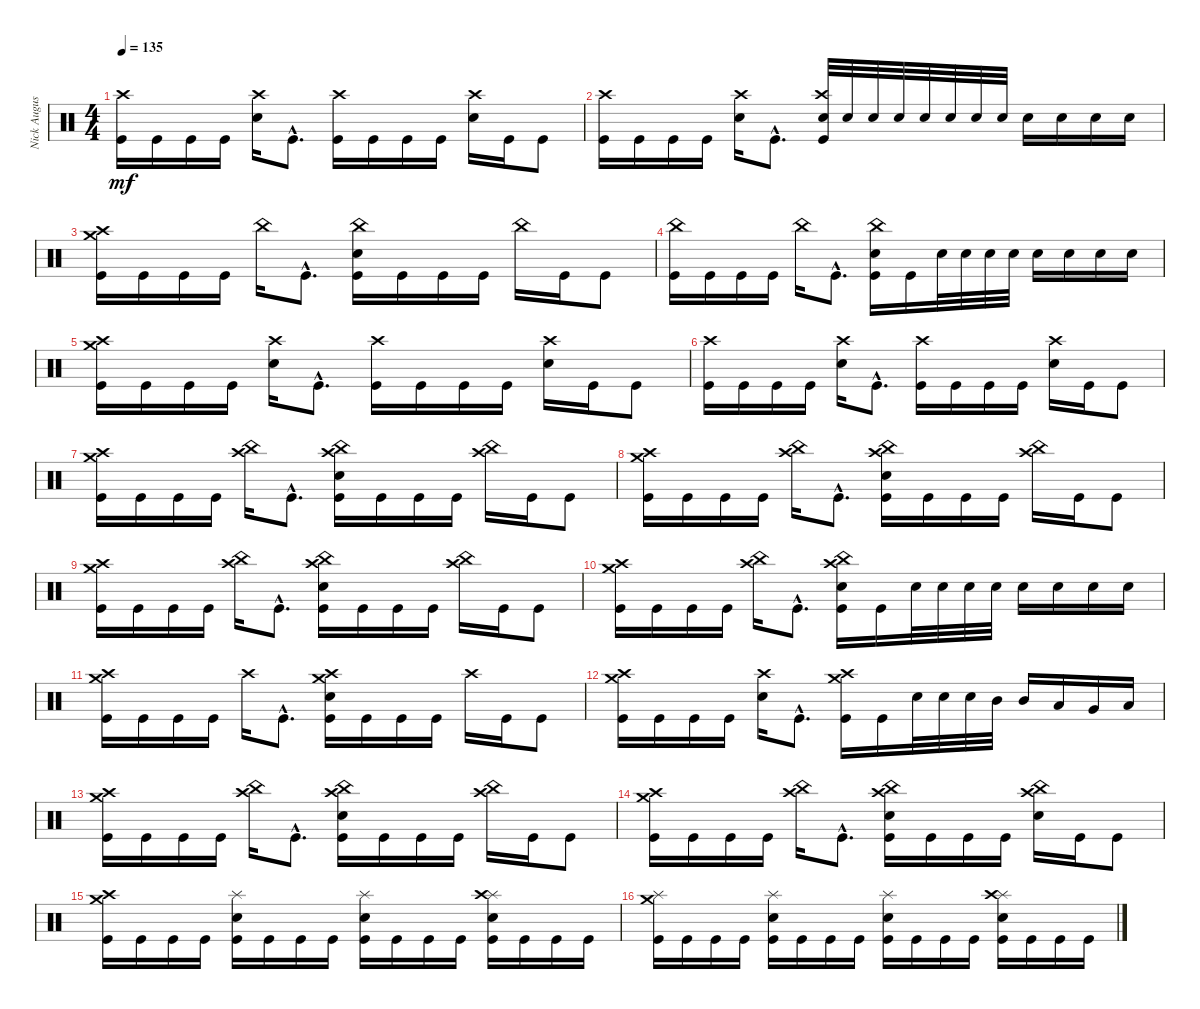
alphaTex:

\track ("Nick Augusto" "Nick Augus") {instrument percussion}
\staff {score}
\articulation defaults
\ts (4 4)
\tempo 135
\clef neutral
\ks c
("Kick (hit)" "Crash high (hit)").16{dy mf} "Kick (hit)".16 "Kick (hit)".16 "Kick (hit)".16 ("Snare (hit) 2" "Crash high (hit)").16 "Kick (hit)"{hac}.8{d} ("Kick (hit)" "Crash high (hit)").16 "Kick (hit)".16 "Kick (hit)".16 "Kick (hit)".16 ("Snare (hit) 2" "Crash high (hit)").16 "Kick (hit)".16 "Kick (hit)".8 |
("Kick (hit)" "Crash high (hit)").16 "Kick (hit)".16 "Kick (hit)".16 "Kick (hit)".16 ("Snare (hit) 2" "Crash high (hit)").16 "Kick (hit)"{hac}.8{d} ("Kick (hit)" "Snare (hit) 2" "Crash high (hit)").32 "Snare (hit) 2".32 "Snare (hit) 2".32 "Snare (hit) 2".32 "Snare (hit) 2".32 "Snare (hit) 2".32 "Snare (hit) 2".32 "Snare (hit) 2".32 "Snare (hit) 2".16 "Snare (hit) 2".16 "Snare (hit) 2".16 "Snare (hit) 2".16 |
("Kick (hit)" "Crash high (hit)" "Crash medium (hit)").16 "Kick (hit)".16 "Kick (hit)".16 "Kick (hit)".16 "China (hit)".16 "Kick (hit)"{hac}.8{d} ("Kick (hit)" "Snare (hit) 2" "China (hit)").16 "Kick (hit)".16 "Kick (hit)".16 "Kick (hit)".16 "China (hit)".16 "Kick (hit)".16 "Kick (hit)".8 |
("Kick (hit)" "China (hit)").16 "Kick (hit)".16 "Kick (hit)".16 "Kick (hit)".16 "China (hit)".16 "Kick (hit)"{hac}.8{d} ("Kick (hit)" "Snare (hit) 2" "China (hit)").16 "Kick (hit)".16 "Snare (hit) 2".32 "Snare (hit) 2".32 "Snare (hit) 2".32 "Snare (hit) 2".32 "Snare (hit) 2".16 "Snare (hit) 2".16 "Snare (hit) 2".16 "Snare (hit) 2".16 |
("Kick (hit)" "Crash high (hit)" "Crash medium (hit)").16 "Kick (hit)".16 "Kick (hit)".16 "Kick (hit)".16 ("Snare (hit) 2" "Crash high (hit)").16 "Kick (hit)"{hac}.8{d} ("Kick (hit)" "Crash high (hit)").16 "Kick (hit)".16 "Kick (hit)".16 "Kick (hit)".16 ("Snare (hit) 2" "Crash high (hit)").16 "Kick (hit)".16 "Kick (hit)".8 |
("Kick (hit)" "Crash high (hit)").16 "Kick (hit)".16 "Kick (hit)".16 "Kick (hit)".16 ("Snare (hit) 2" "Crash high (hit)").16 "Kick (hit)"{hac}.8{d} ("Kick (hit)" "Crash high (hit)").16 "Kick (hit)".16 "Kick (hit)".16 "Kick (hit)".16 ("Snare (hit) 2" "Crash high (hit)").16 "Kick (hit)".16 "Kick (hit)".8 |
("Kick (hit)" "Crash high (hit)" "Crash medium (hit)").16 "Kick (hit)".16 "Kick (hit)".16 "Kick (hit)".16 ("China (hit)" "Crash high (hit)").16 "Kick (hit)"{hac}.8{d} ("Kick (hit)" "Snare (hit) 2" "China (hit)" "Crash high (hit)").16 "Kick (hit)".16 "Kick (hit)".16 "Kick (hit)".16 ("China (hit)" "Crash high (hit)").16 "Kick (hit)".16 "Kick (hit)".8 |
("Kick (hit)" "Crash high (hit)" "Crash medium (hit)").16 "Kick (hit)".16 "Kick (hit)".16 "Kick (hit)".16 ("China (hit)" "Crash high (hit)").16 "Kick (hit)"{hac}.8{d} ("Kick (hit)" "Snare (hit) 2" "China (hit)" "Crash high (hit)").16 "Kick (hit)".16 "Kick (hit)".16 "Kick (hit)".16 ("China (hit)" "Crash high (hit)").16 "Kick (hit)".16 "Kick (hit)".8 |
("Kick (hit)" "Crash high (hit)" "Crash medium (hit)").16 "Kick (hit)".16 "Kick (hit)".16 "Kick (hit)".16 ("China (hit)" "Crash high (hit)").16 "Kick (hit)"{hac}.8{d} ("Kick (hit)" "Snare (hit) 2" "China (hit)" "Crash high (hit)").16 "Kick (hit)".16 "Kick (hit)".16 "Kick (hit)".16 ("China (hit)" "Crash high (hit)").16 "Kick (hit)".16 "Kick (hit)".8 |
("Kick (hit)" "Crash high (hit)" "Crash medium (hit)").16 "Kick (hit)".16 "Kick (hit)".16 "Kick (hit)".16 ("China (hit)" "Crash high (hit)").16 "Kick (hit)"{hac}.8{d} ("Kick (hit)" "Snare (hit) 2" "China (hit)" "Crash high (hit)").16 "Kick (hit)".16 "Snare (hit) 2".32 "Snare (hit) 2".32 "Snare (hit) 2".32 "Snare (hit) 2".32 "Snare (hit) 2".16 "Snare (hit) 2".16 "Snare (hit) 2".16 "Snare (hit) 2".16 |
("Kick (hit)" "Crash high (hit)" "Crash medium (hit)").16 "Kick (hit)".16 "Kick (hit)".16 "Kick (hit)".16 "Crash high (hit)".16 "Kick (hit)"{hac}.8{d} ("Kick (hit)" "Snare (hit) 2" "Crash high (hit)" "Crash medium (hit)").16 "Kick (hit)".16 "Kick (hit)".16 "Kick (hit)".16 "Crash high (hit)".16 "Kick (hit)".16 "Kick (hit)".8 |
("Kick (hit)" "Crash high (hit)" "Crash medium (hit)").16 "Kick (hit)".16 "Kick (hit)".16 "Kick (hit)".16 ("Snare (hit) 2" "Crash high (hit)").16 "Kick (hit)"{hac}.8{d} ("Kick (hit)" "Crash high (hit)" "Crash medium (hit)").16 "Kick (hit)".16 "Snare (hit) 2".32 "Snare (hit) 2".32 "Snare (hit) 2".32 "Mid Tom (hit)".32 "Mid Tom (hit)".16 "Low Tom (hit)".16 "Very Low Tom (hit)".16 "Low Floor Tom (hit)".16 |
("Kick (hit)" "Crash high (hit)" "Crash medium (hit)").16 "Kick (hit)".16 "Kick (hit)".16 "Kick (hit)".16 ("China (hit)" "Crash high (hit)").16 "Kick (hit)"{hac}.8{d} ("Kick (hit)" "Snare (hit) 2" "China (hit)" "Crash high (hit)").16 "Kick (hit)".16 "Kick (hit)".16 "Kick (hit)".16 ("China (hit)" "Crash high (hit)").16 "Kick (hit)".16 "Kick (hit)".8 |
("Kick (hit)" "Crash high (hit)" "Crash medium (hit)").16 "Kick (hit)".16 "Kick (hit)".16 "Kick (hit)".16 ("China (hit)" "Crash high (hit)").16 "Kick (hit)"{hac}.8{d} ("Kick (hit)" "Snare (hit) 2" "China (hit)" "Crash high (hit)").16 "Kick (hit)".16 "Kick (hit)".16 "Kick (hit)".16 ("Snare (hit) 2" "China (hit)" "Crash high (hit)").16 "Kick (hit)".16 "Kick (hit)".8 |
("Kick (hit)" "Crash high (hit)" "Crash medium (hit)").16 "Kick (hit)".16 "Kick (hit)".16 "Kick (hit)".16 ("Kick (hit)" "Snare (hit) 2" "Splash (hit)").16 "Kick (hit)".16 "Kick (hit)".16 "Kick (hit)".16 ("Kick (hit)" "Snare (hit) 2" "Splash (hit)").16 "Kick (hit)".16 "Kick (hit)".16 "Kick (hit)".16 ("Kick (hit)" "Snare (hit) 2" "Splash (hit)" "Crash high (hit)").16 "Kick (hit)".16 "Kick (hit)".16 "Kick (hit)".16 |
("Kick (hit)" "Splash (hit)" "Crash medium (hit)").16 "Kick (hit)".16 "Kick (hit)".16 "Kick (hit)".16 ("Kick (hit)" "Snare (hit) 2" "Splash (hit)").16 "Kick (hit)".16 "Kick (hit)".16 "Kick (hit)".16 ("Kick (hit)" "Snare (hit) 2" "Splash (hit)").16 "Kick (hit)".16 "Kick (hit)".16 "Kick (hit)".16 ("Kick (hit)" "Snare (hit) 2" "Splash (hit)" "Crash high (hit)").16 "Kick (hit)".16 "Kick (hit)".16 "Kick (hit)".16
